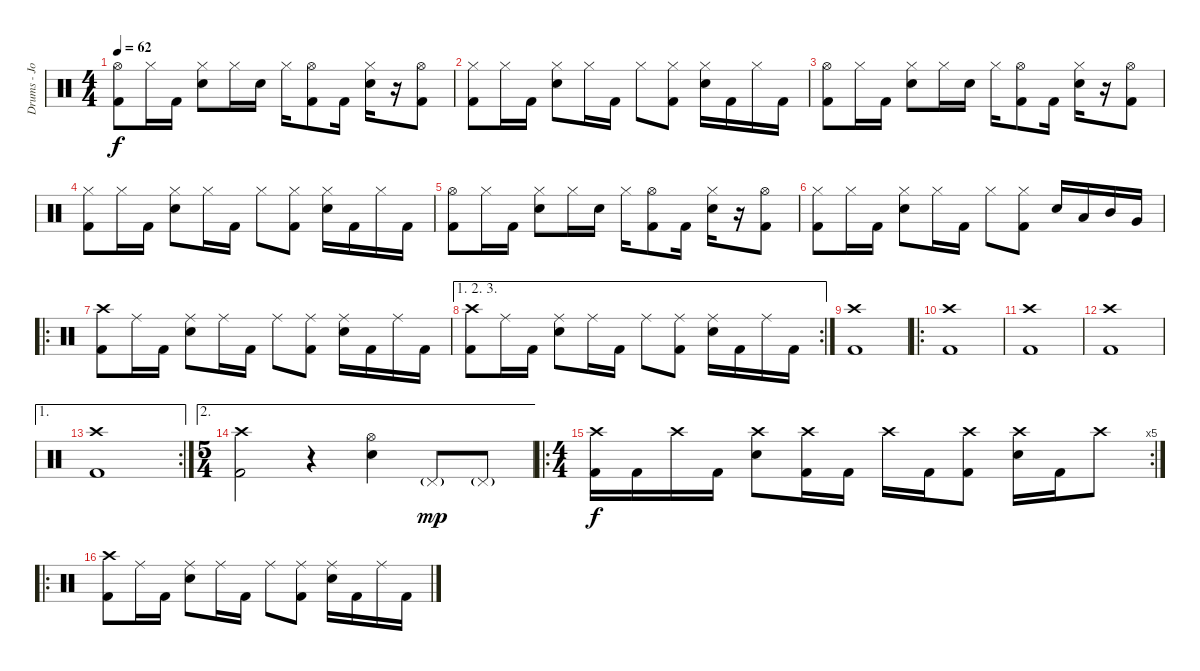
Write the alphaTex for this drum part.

\track ("Drums - Jon Wysocki" "Drums - Jo") {instrument percussion}
\staff {score}
\articulation defaults
\ts (4 4)
\tempo 62
\clef neutral
\ks c
("Hi-Hat (open)" "Kick (hit) 2").8{dy f} "Hi-Hat (closed)".16 "Kick (hit) 2".16 ("Hi-Hat (closed)" "Electric Snare (hit)").8 "Hi-Hat (closed)".16 "Electric Snare (hit)".16 "Hi-Hat (closed)".16 ("Hi-Hat (open)" "Kick (hit) 2").8 "Kick (hit) 2".16 ("Hi-Hat (closed)" "Electric Snare (hit)").16 r.16 ("Hi-Hat (open)" "Kick (hit) 2").8 |
("Hi-Hat (closed)" "Kick (hit) 2").8 "Hi-Hat (closed)".16 "Kick (hit) 2".16 ("Hi-Hat (closed)" "Electric Snare (hit)").8 "Hi-Hat (closed)".16 "Kick (hit) 2".16 "Hi-Hat (closed)".8 ("Hi-Hat (closed)" "Kick (hit) 2").8 ("Hi-Hat (closed)" "Electric Snare (hit)").16 "Kick (hit) 2".16 "Hi-Hat (closed)".16 "Kick (hit) 2".16 |
("Hi-Hat (open)" "Kick (hit) 2").8 "Hi-Hat (closed)".16 "Kick (hit) 2".16 ("Hi-Hat (closed)" "Electric Snare (hit)").8 "Hi-Hat (closed)".16 "Electric Snare (hit)".16 "Hi-Hat (closed)".16 ("Hi-Hat (open)" "Kick (hit) 2").8 "Kick (hit) 2".16 ("Hi-Hat (closed)" "Electric Snare (hit)").16 r.16 ("Hi-Hat (open)" "Kick (hit) 2").8 |
("Hi-Hat (closed)" "Kick (hit) 2").8 "Hi-Hat (closed)".16 "Kick (hit) 2".16 ("Hi-Hat (closed)" "Electric Snare (hit)").8 "Hi-Hat (closed)".16 "Kick (hit) 2".16 "Hi-Hat (closed)".8 ("Hi-Hat (closed)" "Kick (hit) 2").8 ("Hi-Hat (closed)" "Electric Snare (hit)").16 "Kick (hit) 2".16 "Hi-Hat (closed)".16 "Kick (hit) 2".16 |
("Hi-Hat (open)" "Kick (hit) 2").8 "Hi-Hat (closed)".16 "Kick (hit) 2".16 ("Hi-Hat (closed)" "Electric Snare (hit)").8 "Hi-Hat (closed)".16 "Electric Snare (hit)".16 "Hi-Hat (closed)".16 ("Hi-Hat (open)" "Kick (hit) 2").8 "Kick (hit) 2".16 ("Hi-Hat (closed)" "Electric Snare (hit)").16 r.16 ("Hi-Hat (open)" "Kick (hit) 2").8 |
("Hi-Hat (closed)" "Kick (hit) 2").8 "Hi-Hat (closed)".16 "Kick (hit) 2".16 ("Hi-Hat (closed)" "Electric Snare (hit)").8 "Hi-Hat (closed)".16 "Kick (hit) 2".16 "Hi-Hat (closed)".8 ("Hi-Hat (closed)" "Kick (hit) 2").8 "Electric Snare (hit)".16 "Low Tom (hit)".16 "Mid Tom (hit)".16 "Very Low Tom (hit)".16 |
\ro
("Crash high (hit)" "Kick (hit) 2").8 "Ride (middle)".16 "Kick (hit) 2".16 ("Ride (middle)" "Electric Snare (hit)").8 "Ride (middle)".16 "Kick (hit) 2".16 "Ride (middle)".8 ("Ride (middle)" "Kick (hit) 2").8 ("Ride (middle)" "Electric Snare (hit)").16 "Kick (hit) 2".16 "Ride (middle)".16 "Kick (hit) 2".16 |
\ae (1 2 3)
\rc 2
("Crash high (hit)" "Kick (hit) 2").8 "Ride (middle)".16 "Kick (hit) 2".16 ("Ride (middle)" "Electric Snare (hit)").8 "Ride (middle)".16 "Kick (hit) 2".16 "Ride (middle)".8 ("Ride (middle)" "Kick (hit) 2").8 ("Ride (middle)" "Electric Snare (hit)").16 "Kick (hit) 2".16 "Ride (middle)".16 "Kick (hit) 2".16 |
("Crash high (hit)" "Kick (hit) 2").1 |
\ro
("Crash high (hit)" "Kick (hit) 2").1 |
("Crash high (hit)" "Kick (hit) 2").1 |
("Crash high (hit)" "Kick (hit) 2").1 |
\ae 1
\rc 2
("Crash high (hit)" "Kick (hit) 2").1 |
\ae 2
\ts (5 4)
("Crash high (hit)" "Kick (hit) 2").2 r.4 ("Hi-Hat (open)" "Electric Snare (hit)").4 "Pedal Hi-Hat (hit)"{g}.8{dy mp} "Pedal Hi-Hat (hit)"{g}.8 |
\ro
\rc 5
\ts (4 4)
("Crash high (hit)" "Kick (hit) 2").16{dy f} "Kick (hit) 2".16 "Crash high (hit)".16 "Kick (hit) 2".16 ("Crash high (hit)" "Electric Snare (hit)").8 ("Crash high (hit)" "Kick (hit) 2").16 "Kick (hit) 2".16 "Crash high (hit)".16 "Kick (hit) 2".16 ("Crash high (hit)" "Kick (hit) 2").8 ("Crash high (hit)" "Electric Snare (hit)").16 "Kick (hit) 2".16 "Crash high (hit)".8 |
\ro
("Crash high (hit)" "Kick (hit) 2").8 "Ride (middle)".16 "Kick (hit) 2".16 ("Ride (middle)" "Electric Snare (hit)").8 "Ride (middle)".16 "Kick (hit) 2".16 "Ride (middle)".8 ("Ride (middle)" "Kick (hit) 2").8 ("Ride (middle)" "Electric Snare (hit)").16 "Kick (hit) 2".16 "Ride (middle)".16 "Kick (hit) 2".16
